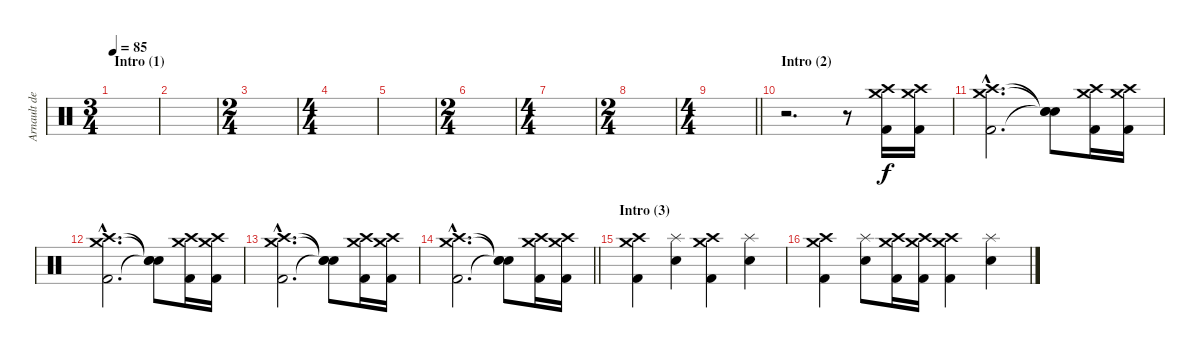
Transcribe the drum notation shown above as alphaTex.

\track ("Arnault de Staël" "Arnault de") {instrument percussion}
\staff {score}
\articulation defaults
\ts (3 4)
\section ("" "Intro (1)")
\tempo 85
\clef neutral
\ks c
|
|
\ts (2 4)
|
\ts (4 4)
|
|
\ts (2 4)
|
\ts (4 4)
|
\ts (2 4)
|
\ts (4 4)
\barLineRight lightlight
|
\section ("" "Intro (2)")
r.2{d} r.8 ("Crash high (hit)" "Crash medium (hit)" "Kick (hit) 2").16 ("Crash high (hit)" "Crash medium (hit)" "Kick (hit) 2").16 |
("Crash high (hit)"{hac} "Crash medium (hit)"{hac} "Kick (hit) 2"{hac}).2{d} ("Snare (hit)"{t} "Snare (hit)"{t} "Snare (hit)"{t}).8 ("Crash high (hit)" "Crash medium (hit)" "Kick (hit) 2").16 ("Crash high (hit)" "Crash medium (hit)" "Kick (hit) 2").16 |
("Crash high (hit)"{hac} "Crash medium (hit)"{hac} "Kick (hit) 2"{hac}).2{d} ("Snare (hit)"{t} "Snare (hit)"{t} "Snare (hit)"{t}).8 ("Crash high (hit)" "Crash medium (hit)" "Kick (hit) 2").16 ("Crash high (hit)" "Crash medium (hit)" "Kick (hit) 2").16 |
("Crash high (hit)"{hac} "Crash medium (hit)"{hac} "Kick (hit) 2"{hac}).2{d} ("Snare (hit)"{t} "Snare (hit)"{t} "Snare (hit)"{t}).8 ("Crash high (hit)" "Crash medium (hit)" "Kick (hit) 2").16 ("Crash high (hit)" "Crash medium (hit)" "Kick (hit) 2").16 |
\barLineRight lightlight
("Crash high (hit)"{hac} "Crash medium (hit)"{hac} "Kick (hit) 2"{hac}).2{d} ("Snare (hit)"{t} "Snare (hit)"{t} "Snare (hit)"{t}).8 ("Crash high (hit)" "Crash medium (hit)" "Kick (hit) 2").16 ("Crash high (hit)" "Crash medium (hit)" "Kick (hit) 2").16 |
\section ("" "Intro (3)")
("Crash high (hit)" "Crash medium (hit)" "Kick (hit) 2").4 ("Splash (hit)" "Electric Snare (hit)").4 ("Crash high (hit)" "Crash medium (hit)" "Kick (hit) 2").4 ("Splash (hit)" "Electric Snare (hit)").4 |
("Crash high (hit)" "Crash medium (hit)" "Kick (hit) 2").4 ("Splash (hit)" "Electric Snare (hit)").8 ("Crash high (hit)" "Crash medium (hit)" "Kick (hit) 2").16 ("Crash high (hit)" "Crash medium (hit)" "Kick (hit) 2").16 ("Crash high (hit)" "Crash medium (hit)" "Kick (hit) 2").4 ("Splash (hit)" "Electric Snare (hit)").4
